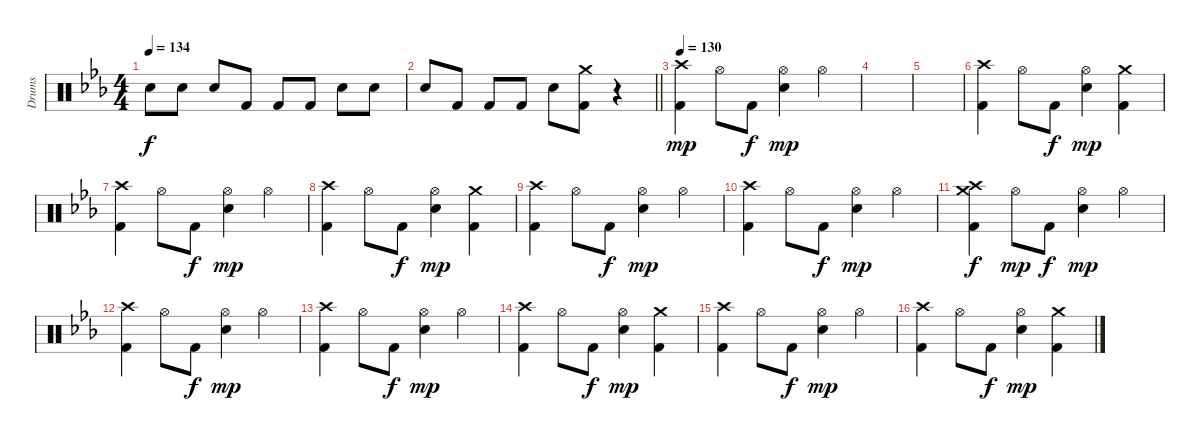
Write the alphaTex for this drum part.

\track ("Drums" "Drums") {instrument percussion}
\staff {score}
\articulation defaults
\ts (4 4)
\tempo 134
\clef neutral
\ks cminor "Electric Snare (hit)".8{dy f} "Electric Snare (hit)".8 "Electric Snare (hit)".8 "Kick (hit) 2".8 "Kick (hit) 2".8 "Kick (hit) 2".8 "Electric Snare (hit)".8 "Electric Snare (hit)".8
|
\barLineRight lightlight "Electric Snare (hit)".8 "Kick (hit) 2".8 "Kick (hit) 2".8 "Kick (hit) 2".8 "Electric Snare (hit)".8
("Crash medium (hit)" "Kick (hit) 2").8 r.4 |
\tempo 130
("Crash high (hit)" "Kick (hit) 2").4{dy mp} "Hi-Hat (open)".8 "Kick (hit) 2".8{dy f} ("Hi-Hat (open)" "Electric Snare (hit)").4{dy mp} "Hi-Hat (open)".4 |
|
|
("Crash high (hit)" "Kick (hit) 2").4 "Hi-Hat (open)".8 "Kick (hit) 2".8{dy f} ("Hi-Hat (open)" "Electric Snare (hit)").4{dy mp} ("Crash medium (hit)" "Kick (hit) 2").4 |
("Crash high (hit)" "Kick (hit) 2").4 "Hi-Hat (open)".8 "Kick (hit) 2".8{dy f} ("Hi-Hat (open)" "Electric Snare (hit)").4{dy mp} "Hi-Hat (open)".4 |
("Crash high (hit)" "Kick (hit) 2").4 "Hi-Hat (open)".8 "Kick (hit) 2".8{dy f} ("Hi-Hat (open)" "Electric Snare (hit)").4{dy mp} ("Crash medium (hit)" "Kick (hit) 2").4 |
("Crash high (hit)" "Kick (hit) 2").4 "Hi-Hat (open)".8 "Kick (hit) 2".8{dy f} ("Hi-Hat (open)" "Electric Snare (hit)").4{dy mp} "Hi-Hat (open)".4 |
("Crash high (hit)" "Kick (hit) 2").4 "Hi-Hat (open)".8 "Kick (hit) 2".8{dy f} ("Hi-Hat (open)" "Electric Snare (hit)").4{dy mp} "Hi-Hat (open)".4 |
("Crash medium (hit)" "Crash high (hit)" "Kick (hit) 2").4{dy f} "Hi-Hat (open)".8{dy mp} "Kick (hit) 2".8{dy f} ("Hi-Hat (open)" "Electric Snare (hit)").4{dy mp} "Hi-Hat (open)".4 |
("Crash high (hit)" "Kick (hit) 2").4 "Hi-Hat (open)".8 "Kick (hit) 2".8{dy f} ("Hi-Hat (open)" "Electric Snare (hit)").4{dy mp} "Hi-Hat (open)".4 |
("Crash high (hit)" "Kick (hit) 2").4 "Hi-Hat (open)".8 "Kick (hit) 2".8{dy f} ("Hi-Hat (open)" "Electric Snare (hit)").4{dy mp} "Hi-Hat (open)".4 |
("Crash high (hit)" "Kick (hit) 2").4 "Hi-Hat (open)".8 "Kick (hit) 2".8{dy f} ("Hi-Hat (open)" "Electric Snare (hit)").4{dy mp} ("Crash medium (hit)" "Kick (hit) 2").4 |
("Crash high (hit)" "Kick (hit) 2").4 "Hi-Hat (open)".8 "Kick (hit) 2".8{dy f} ("Hi-Hat (open)" "Electric Snare (hit)").4{dy mp} "Hi-Hat (open)".4 |
("Crash high (hit)" "Kick (hit) 2").4 "Hi-Hat (open)".8 "Kick (hit) 2".8{dy f} ("Hi-Hat (open)" "Electric Snare (hit)").4{dy mp} ("Crash medium (hit)" "Kick (hit) 2").4
